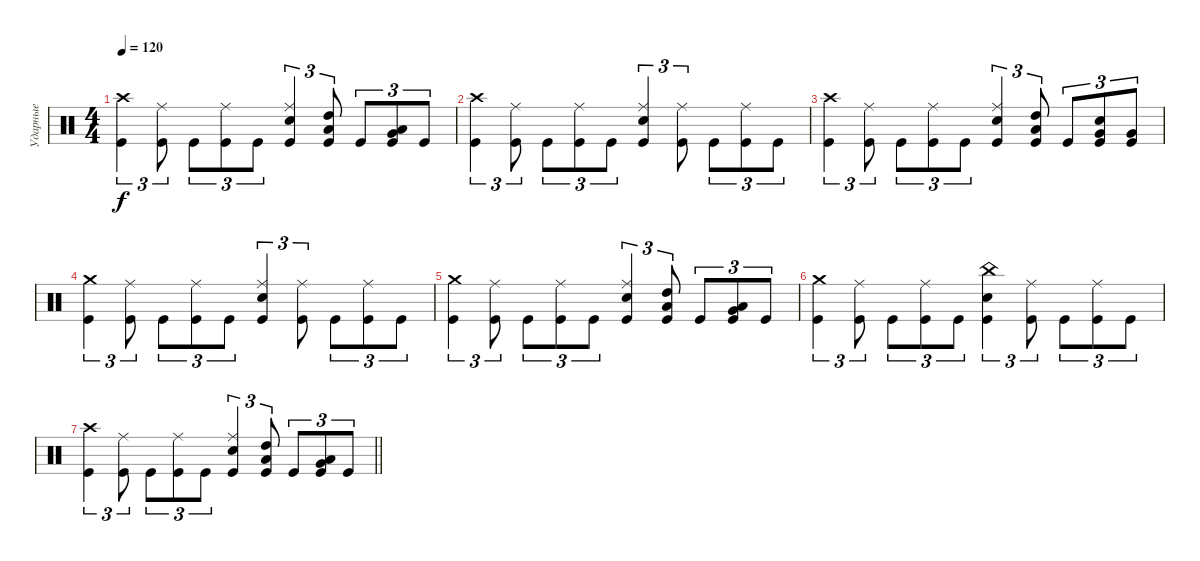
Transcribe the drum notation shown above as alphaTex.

\track ("Ударные" "Ударные") {instrument percussion}
\staff {score}
\articulation defaults
\ts (4 4)
\tempo 120
\clef neutral
\ks c
("Crash high (hit)" "Kick (hit)").4{tu (3 2) dy f} ("Ride (middle)" "Kick (hit)").8{tu (3 2)} "Kick (hit)".8{tu (3 2)} ("Ride (middle)" "Kick (hit)").8{tu (3 2)} "Kick (hit)".8{tu (3 2)} ("Ride (middle)" "Electric Snare (hit)" "Kick (hit)").4{tu (3 2)} ("Low Tom (hit)" "High Tom (hit)" "Kick (hit)").8{tu (3 2)} "Kick (hit)".8{tu (3 2)} ("Very Low Tom (hit)" "Low Tom (hit)" "Kick (hit)").8{tu (3 2)} "Kick (hit)".8{tu (3 2)} |
("Crash high (hit)" "Kick (hit)").4{tu (3 2)} ("Ride (middle)" "Kick (hit)").8{tu (3 2)} "Kick (hit)".8{tu (3 2)} ("Ride (middle)" "Kick (hit)").8{tu (3 2)} "Kick (hit)".8{tu (3 2)} ("Ride (middle)" "Electric Snare (hit)" "Kick (hit)").4{tu (3 2)} ("Ride (middle)" "Kick (hit)").8{tu (3 2)} "Kick (hit)".8{tu (3 2)} ("Ride (middle)" "Kick (hit)").8{tu (3 2)} "Kick (hit)".8{tu (3 2)} |
("Crash high (hit)" "Kick (hit)").4{tu (3 2)} ("Ride (middle)" "Kick (hit)").8{tu (3 2)} "Kick (hit)".8{tu (3 2)} ("Ride (middle)" "Kick (hit)").8{tu (3 2)} "Kick (hit)".8{tu (3 2)} ("Ride (middle)" "Electric Snare (hit)" "Kick (hit)").4{tu (3 2)} ("Low Tom (hit)" "High Tom (hit)" "Kick (hit)").8{tu (3 2)} "Kick (hit)".8{tu (3 2)} ("Very Low Tom (hit)" "Electric Snare (hit)" "Kick (hit)").8{tu (3 2)} ("Very Low Tom (hit)" "Kick (hit)").8{tu (3 2)} |
("Crash medium (hit)" "Kick (hit)").4{tu (3 2)} ("Ride (middle)" "Kick (hit)").8{tu (3 2)} "Kick (hit)".8{tu (3 2)} ("Ride (middle)" "Kick (hit)").8{tu (3 2)} "Kick (hit)".8{tu (3 2)} ("Ride (middle)" "Electric Snare (hit)" "Kick (hit)").4{tu (3 2)} ("Ride (middle)" "Kick (hit)").8{tu (3 2)} "Kick (hit)".8{tu (3 2)} ("Ride (middle)" "Kick (hit)").8{tu (3 2)} "Kick (hit)".8{tu (3 2)} |
("Crash medium (hit)" "Kick (hit)").4{tu (3 2)} ("Ride (middle)" "Kick (hit)").8{tu (3 2)} "Kick (hit)".8{tu (3 2)} ("Ride (middle)" "Kick (hit)").8{tu (3 2)} "Kick (hit)".8{tu (3 2)} ("Ride (middle)" "Electric Snare (hit)" "Kick (hit)").4{tu (3 2)} ("Low Tom (hit)" "High Tom (hit)" "Kick (hit)").8{tu (3 2)} "Kick (hit)".8{tu (3 2)} ("Very Low Tom (hit)" "Low Tom (hit)" "Kick (hit)").8{tu (3 2)} "Kick (hit)".8{tu (3 2)} |
("Crash medium (hit)" "Kick (hit)").4{tu (3 2)} ("Ride (middle)" "Kick (hit)").8{tu (3 2)} "Kick (hit)".8{tu (3 2)} ("Ride (middle)" "Kick (hit)").8{tu (3 2)} "Kick (hit)".8{tu (3 2)} ("China (hit)" "Electric Snare (hit)" "Kick (hit)").4{tu (3 2)} ("Ride (middle)" "Kick (hit)").8{tu (3 2)} "Kick (hit)".8{tu (3 2)} ("Ride (middle)" "Kick (hit)").8{tu (3 2)} "Kick (hit)".8{tu (3 2)} |
\barLineRight lightlight
("Crash high (hit)" "Kick (hit)").4{tu (3 2)} ("Ride (middle)" "Kick (hit)").8{tu (3 2)} "Kick (hit)".8{tu (3 2)} ("Ride (middle)" "Kick (hit)").8{tu (3 2)} "Kick (hit)".8{tu (3 2)} ("Ride (middle)" "Electric Snare (hit)" "Kick (hit)").4{tu (3 2)} ("Low Tom (hit)" "High Tom (hit)" "Kick (hit)").8{tu (3 2)} "Kick (hit)".8{tu (3 2)} ("Very Low Tom (hit)" "Low Tom (hit)" "Kick (hit)").8{tu (3 2)} "Kick (hit)".8{tu (3 2)}
